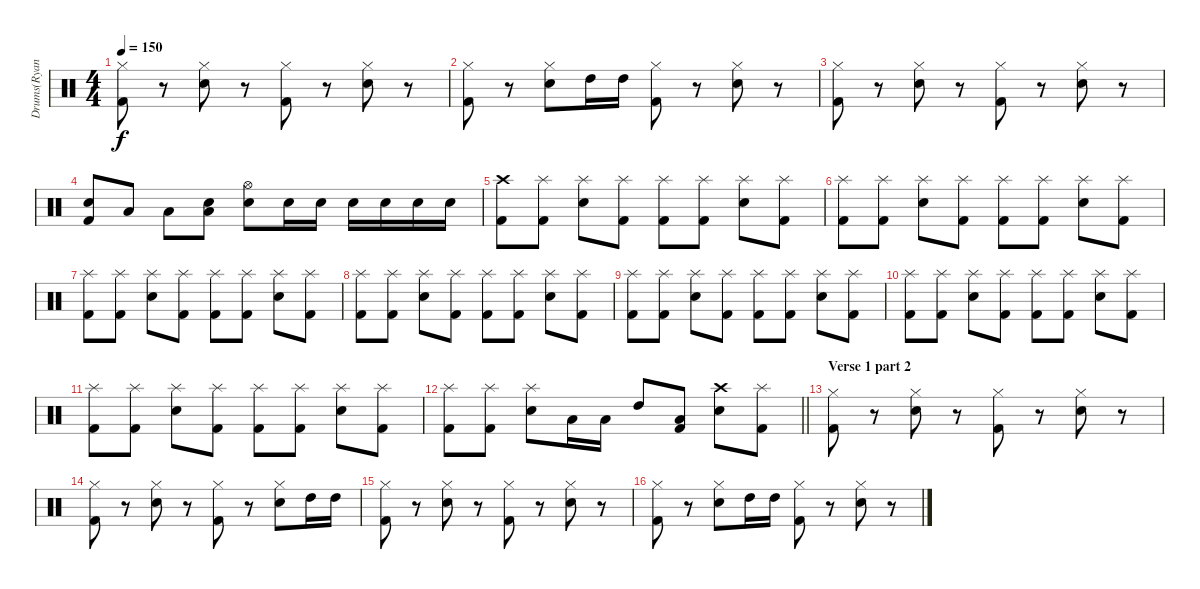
\track ("Drums(Ryan)" "Drums(Ryan") {instrument percussion}
\staff {score}
\articulation defaults
\ts (4 4)
\tempo 150
\clef neutral
\ks c
("Hi-Hat (closed)" "Kick (hit) 2").8{dy f} r.8 ("Hi-Hat (closed)" "Electric Snare (hit)").8 r.8 ("Hi-Hat (closed)" "Kick (hit) 2").8 r.8 ("Hi-Hat (closed)" "Electric Snare (hit)").8 r.8 |
("Hi-Hat (closed)" "Kick (hit) 2").8 r.8 ("Hi-Hat (closed)" "Electric Snare (hit)").8 "High Tom (hit)".16 "High Tom (hit)".16 ("Hi-Hat (closed)" "Kick (hit) 2").8 r.8 ("Hi-Hat (closed)" "Electric Snare (hit)").8 r.8 |
("Hi-Hat (closed)" "Kick (hit) 2").8 r.8 ("Hi-Hat (closed)" "Electric Snare (hit)").8 r.8 ("Hi-Hat (closed)" "Kick (hit) 2").8 r.8 ("Hi-Hat (closed)" "Electric Snare (hit)").8 r.8 |
("Electric Snare (hit)" "Kick (hit) 2").8 "Low Tom (hit)".8 "Low Tom (hit)".8 ("Low Tom (hit)" "Electric Snare (hit)").8 ("Hi-Hat (open)" "Electric Snare (hit)").8 "Electric Snare (hit)".16 "Electric Snare (hit)".16 "Electric Snare (hit)".16 "Electric Snare (hit)".16 "Electric Snare (hit)".16 "Electric Snare (hit)".16 |
("Crash high (hit)" "Kick (hit) 2").8 ("Splash (hit)" "Kick (hit) 2").8 ("Splash (hit)" "Electric Snare (hit)").8 ("Splash (hit)" "Kick (hit) 2").8 ("Splash (hit)" "Kick (hit) 2").8 ("Splash (hit)" "Kick (hit) 2").8 ("Splash (hit)" "Electric Snare (hit)").8 ("Splash (hit)" "Kick (hit) 2").8 |
("Splash (hit)" "Kick (hit) 2").8 ("Splash (hit)" "Kick (hit) 2").8 ("Splash (hit)" "Electric Snare (hit)").8 ("Splash (hit)" "Kick (hit) 2").8 ("Splash (hit)" "Kick (hit) 2").8 ("Splash (hit)" "Kick (hit) 2").8 ("Splash (hit)" "Electric Snare (hit)").8 ("Splash (hit)" "Kick (hit) 2").8 |
("Splash (hit)" "Kick (hit) 2").8 ("Splash (hit)" "Kick (hit) 2").8 ("Splash (hit)" "Electric Snare (hit)").8 ("Splash (hit)" "Kick (hit) 2").8 ("Splash (hit)" "Kick (hit) 2").8 ("Splash (hit)" "Kick (hit) 2").8 ("Splash (hit)" "Electric Snare (hit)").8 ("Splash (hit)" "Kick (hit) 2").8 |
("Splash (hit)" "Kick (hit) 2").8 ("Splash (hit)" "Kick (hit) 2").8 ("Splash (hit)" "Electric Snare (hit)").8 ("Splash (hit)" "Kick (hit) 2").8 ("Splash (hit)" "Kick (hit) 2").8 ("Splash (hit)" "Kick (hit) 2").8 ("Splash (hit)" "Electric Snare (hit)").8 ("Splash (hit)" "Kick (hit) 2").8 |
("Splash (hit)" "Kick (hit) 2").8 ("Splash (hit)" "Kick (hit) 2").8 ("Splash (hit)" "Electric Snare (hit)").8 ("Splash (hit)" "Kick (hit) 2").8 ("Splash (hit)" "Kick (hit) 2").8 ("Splash (hit)" "Kick (hit) 2").8 ("Splash (hit)" "Electric Snare (hit)").8 ("Splash (hit)" "Kick (hit) 2").8 |
("Splash (hit)" "Kick (hit) 2").8 ("Splash (hit)" "Kick (hit) 2").8 ("Splash (hit)" "Electric Snare (hit)").8 ("Splash (hit)" "Kick (hit) 2").8 ("Splash (hit)" "Kick (hit) 2").8 ("Splash (hit)" "Kick (hit) 2").8 ("Splash (hit)" "Electric Snare (hit)").8 ("Splash (hit)" "Kick (hit) 2").8 |
("Splash (hit)" "Kick (hit) 2").8 ("Splash (hit)" "Kick (hit) 2").8 ("Splash (hit)" "Electric Snare (hit)").8 ("Splash (hit)" "Kick (hit) 2").8 ("Splash (hit)" "Kick (hit) 2").8 ("Splash (hit)" "Kick (hit) 2").8 ("Splash (hit)" "Electric Snare (hit)").8 ("Splash (hit)" "Kick (hit) 2").8 |
\barLineRight lightlight
("Splash (hit)" "Kick (hit) 2").8 ("Splash (hit)" "Kick (hit) 2").8 ("Splash (hit)" "Electric Snare (hit)").8 "Low Tom (hit)".16 "Low Tom (hit)".16 "High Tom (hit)".8 ("Low Tom (hit)" "Kick (hit) 2").8 ("Crash high (hit)" "Electric Snare (hit)").8 ("Splash (hit)" "Kick (hit) 2").8 |
\section ("" "Verse 1 part 2 ")
("Hi-Hat (closed)" "Kick (hit) 2").8 r.8 ("Hi-Hat (closed)" "Electric Snare (hit)").8 r.8 ("Hi-Hat (closed)" "Kick (hit) 2").8 r.8 ("Hi-Hat (closed)" "Electric Snare (hit)").8 r.8 |
("Hi-Hat (closed)" "Kick (hit) 2").8 r.8 ("Hi-Hat (closed)" "Electric Snare (hit)").8 r.8 ("Hi-Hat (closed)" "Kick (hit) 2").8 r.8 ("Hi-Hat (closed)" "Electric Snare (hit)").8 "High Tom (hit)".16 "High Tom (hit)".16 |
("Hi-Hat (closed)" "Kick (hit) 2").8 r.8 ("Hi-Hat (closed)" "Electric Snare (hit)").8 r.8 ("Hi-Hat (closed)" "Kick (hit) 2").8 r.8 ("Hi-Hat (closed)" "Electric Snare (hit)").8 r.8 |
("Hi-Hat (closed)" "Kick (hit) 2").8 r.8 ("Hi-Hat (closed)" "Electric Snare (hit)").8 "High Tom (hit)".16 "High Tom (hit)".16 ("Hi-Hat (closed)" "Kick (hit) 2").8 r.8 ("Hi-Hat (closed)" "Electric Snare (hit)").8 r.8
